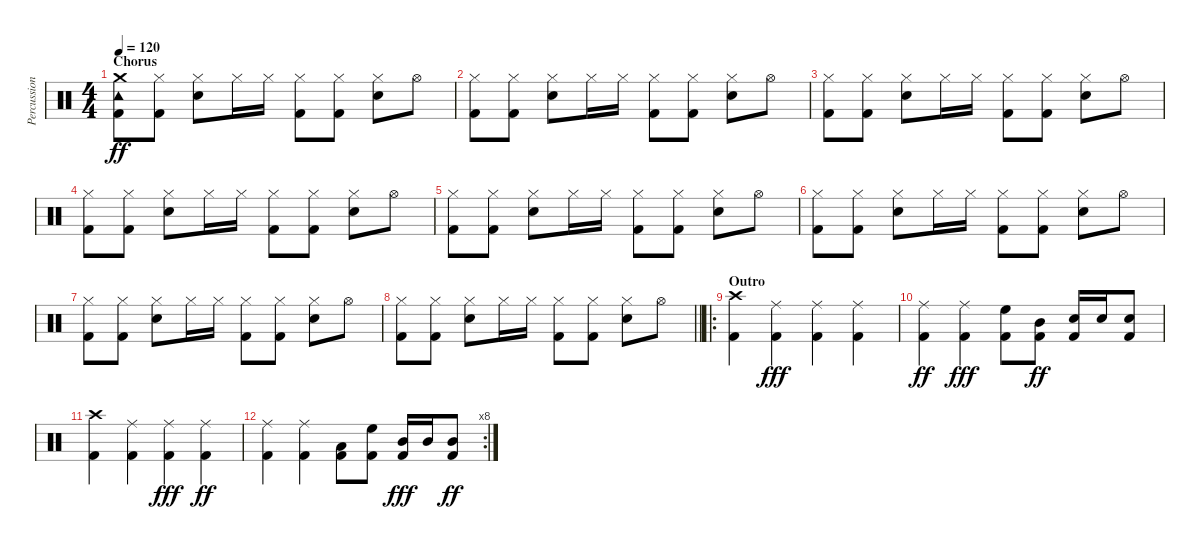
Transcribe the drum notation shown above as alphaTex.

\track ("Percussion" "Percussion") {instrument percussion}
\staff {score}
\articulation defaults
\ts (4 4)
\section ("" "Chorus")
\tempo 120
\clef neutral
\ks c
("Crash medium (hit)" "Tambourine (hit)" "Kick (hit) 2").8{dy ff} ("Kick (hit) 2" "Hi-Hat (closed)").8 ("Hi-Hat (closed)" "Snare (hit) 2").8 "Hi-Hat (closed)".16 "Hi-Hat (closed)".16 ("Hi-Hat (closed)" "Kick (hit) 2").8 ("Hi-Hat (closed)" "Kick (hit) 2").8 ("Hi-Hat (closed)" "Snare (hit) 2").8 "Hi-Hat (open)".8 |
("Hi-Hat (closed)" "Kick (hit) 2").8 ("Kick (hit) 2" "Hi-Hat (closed)").8 ("Hi-Hat (closed)" "Snare (hit) 2").8 "Hi-Hat (closed)".16 "Hi-Hat (closed)".16 ("Kick (hit) 2" "Hi-Hat (closed)").8 ("Hi-Hat (closed)" "Kick (hit) 2").8 ("Hi-Hat (closed)" "Snare (hit) 2").8 "Hi-Hat (open)".8 |
("Hi-Hat (closed)" "Kick (hit) 2").8 ("Kick (hit) 2" "Hi-Hat (closed)").8 ("Hi-Hat (closed)" "Snare (hit) 2").8 "Hi-Hat (closed)".16 "Hi-Hat (closed)".16 ("Hi-Hat (closed)" "Kick (hit) 2").8 ("Hi-Hat (closed)" "Kick (hit) 2").8 ("Hi-Hat (closed)" "Snare (hit) 2").8 "Hi-Hat (open)".8 |
("Hi-Hat (closed)" "Kick (hit) 2").8 ("Hi-Hat (closed)" "Kick (hit) 2").8 ("Hi-Hat (closed)" "Snare (hit) 2").8 "Hi-Hat (closed)".16 "Hi-Hat (closed)".16 ("Hi-Hat (closed)" "Kick (hit) 2").8 ("Kick (hit) 2" "Hi-Hat (closed)").8 ("Hi-Hat (closed)" "Snare (hit) 2").8 "Hi-Hat (open)".8 |
("Kick (hit) 2" "Hi-Hat (closed)").8 ("Kick (hit) 2" "Hi-Hat (closed)").8 ("Hi-Hat (closed)" "Snare (hit) 2").8 "Hi-Hat (closed)".16 "Hi-Hat (closed)".16 ("Hi-Hat (closed)" "Kick (hit) 2").8 ("Hi-Hat (closed)" "Kick (hit) 2").8 ("Snare (hit) 2" "Hi-Hat (closed)").8 "Hi-Hat (open)".8 |
("Hi-Hat (closed)" "Kick (hit) 2").8 ("Hi-Hat (closed)" "Kick (hit) 2").8 ("Hi-Hat (closed)" "Snare (hit) 2").8 "Hi-Hat (closed)".16 "Hi-Hat (closed)".16 ("Hi-Hat (closed)" "Kick (hit) 2").8 ("Kick (hit) 2" "Hi-Hat (closed)").8 ("Hi-Hat (closed)" "Snare (hit) 2").8 "Hi-Hat (open)".8 |
("Hi-Hat (closed)" "Kick (hit) 2").8 ("Hi-Hat (closed)" "Kick (hit) 2").8 ("Hi-Hat (closed)" "Snare (hit) 2").8 "Hi-Hat (closed)".16 "Hi-Hat (closed)".16 ("Hi-Hat (closed)" "Kick (hit) 2").8 ("Hi-Hat (closed)" "Kick (hit) 2").8 ("Snare (hit) 2" "Hi-Hat (closed)").8 "Hi-Hat (open)".8 |
\barLineRight lightlight
("Hi-Hat (closed)" "Kick (hit) 2").8 ("Hi-Hat (closed)" "Kick (hit) 2").8 ("Hi-Hat (closed)" "Snare (hit) 2").8 "Hi-Hat (closed)".16 "Hi-Hat (closed)".16 ("Kick (hit) 2" "Hi-Hat (closed)").8 ("Kick (hit) 2" "Hi-Hat (closed)").8 ("Hi-Hat (closed)" "Snare (hit) 2").8 "Hi-Hat (open)".8 |
\ro
\section ("" "Outro")
("Crash high (hit)" "Kick (hit) 2").4 ("Kick (hit) 2" "Ride (middle)").4{dy fff} ("Kick (hit) 2" "Ride (middle)").4 ("Kick (hit) 2" "Ride (middle)").4 |
("Ride (middle)" "Kick (hit) 2").4{dy ff} ("Kick (hit) 2" "Ride (middle)").4{dy fff} ("Kick (hit) 2" "High Floor Tom (hit)").8 ("Mid Tom (hit)" "Kick (hit) 2").8{dy ff} ("Snare (hit) 2" "Kick (hit) 2").16 "Snare (hit) 2".16 ("Kick (hit) 2" "Snare (hit) 2").8 |
("Crash high (hit)" "Kick (hit) 2").4 ("Ride (middle)" "Kick (hit) 2").4 ("Kick (hit) 2" "Ride (middle)").4{dy fff} ("Ride (middle)" "Kick (hit) 2").4{dy ff} |
\rc 8
("Ride (middle)" "Kick (hit) 2").4 ("Ride (middle)" "Kick (hit) 2").4 ("Low Tom (hit)" "Kick (hit) 2").8 ("High Floor Tom (hit)" "Kick (hit) 2").8 ("Kick (hit) 2" "Mid Tom (hit)").16{dy fff} "Mid Tom (hit)".16 ("Mid Tom (hit)" "Kick (hit) 2").8{dy ff}
